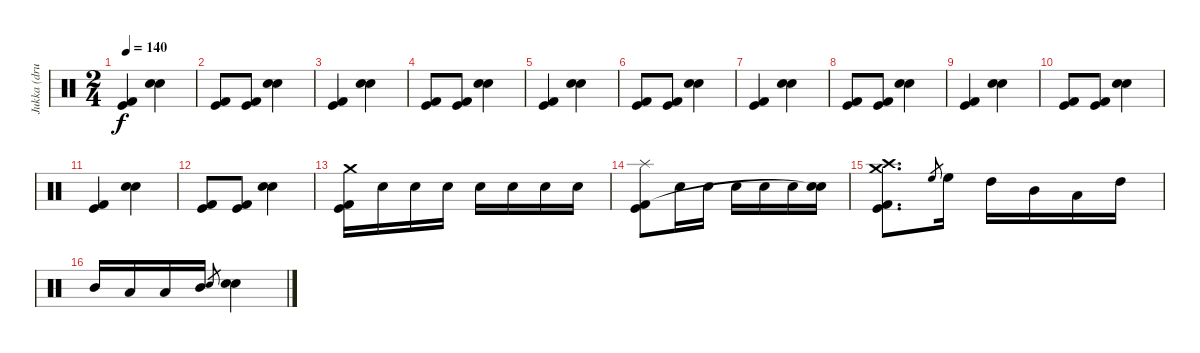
\track ("Jukka (drums)" "Jukka (dru") {instrument percussion}
\staff {score}
\articulation defaults
\ts (2 4)
\tempo 140
\clef neutral
\ks c
("Kick (hit)" "Kick (hit) 2").4{dy f} ("Electric Snare (hit)" "Hand Clap (hit)").4 |
("Kick (hit)" "Kick (hit) 2").8 ("Kick (hit)" "Kick (hit) 2").8 ("Electric Snare (hit)" "Hand Clap (hit)").4 |
("Kick (hit)" "Kick (hit) 2").4 ("Electric Snare (hit)" "Hand Clap (hit)").4 |
("Kick (hit)" "Kick (hit) 2").8 ("Kick (hit)" "Kick (hit) 2").8 ("Electric Snare (hit)" "Hand Clap (hit)").4 |
("Kick (hit)" "Kick (hit) 2").4 ("Electric Snare (hit)" "Hand Clap (hit)").4 |
("Kick (hit)" "Kick (hit) 2").8 ("Kick (hit)" "Kick (hit) 2").8 ("Electric Snare (hit)" "Hand Clap (hit)").4 |
("Kick (hit)" "Kick (hit) 2").4 ("Electric Snare (hit)" "Hand Clap (hit)").4 |
("Kick (hit)" "Kick (hit) 2").8 ("Kick (hit)" "Kick (hit) 2").8 ("Electric Snare (hit)" "Hand Clap (hit)").4 |
("Kick (hit)" "Kick (hit) 2").4 ("Electric Snare (hit)" "Hand Clap (hit)").4 |
("Kick (hit)" "Kick (hit) 2").8 ("Kick (hit)" "Kick (hit) 2").8 ("Electric Snare (hit)" "Hand Clap (hit)").4 |
("Kick (hit)" "Kick (hit) 2").4 ("Electric Snare (hit)" "Hand Clap (hit)").4 |
("Kick (hit)" "Kick (hit) 2").8 ("Kick (hit)" "Kick (hit) 2").8 ("Electric Snare (hit)" "Hand Clap (hit)").4 |
("Kick (hit)" "Kick (hit) 2" "Crash medium (hit)").16 "Electric Snare (hit)".16 "Electric Snare (hit)".16 "Electric Snare (hit)".16 "Electric Snare (hit)".16 "Electric Snare (hit)".16 "Electric Snare (hit)".16 "Electric Snare (hit)".16 |
("Kick (hit)" "Kick (hit) 2" "Splash (hit)").8 "Electric Snare (hit)".16 "Electric Snare (hit)".16 "Electric Snare (hit)".16 "Electric Snare (hit)".16 "Electric Snare (hit)".16 ("Electric Snare (hit)" "Snare (hit)"{t}).16 |
("Kick (hit)" "Kick (hit) 2" "Crash high (hit)" "Crash medium (hit)").8{d} "High Floor Tom (hit)".8{gr} "High Floor Tom (hit)".16 "High Tom (hit)".16 "Mid Tom (hit)".16 "Low Tom (hit)".16 "High Tom (hit)".16 |
"Mid Tom (hit)".16 "Low Tom (hit)".16 "Low Tom (hit)".16 "Mid Tom (hit)".16 "Electric Snare (hit)".8{gr} ("Electric Snare (hit)" "Electric Snare (hit)").4
